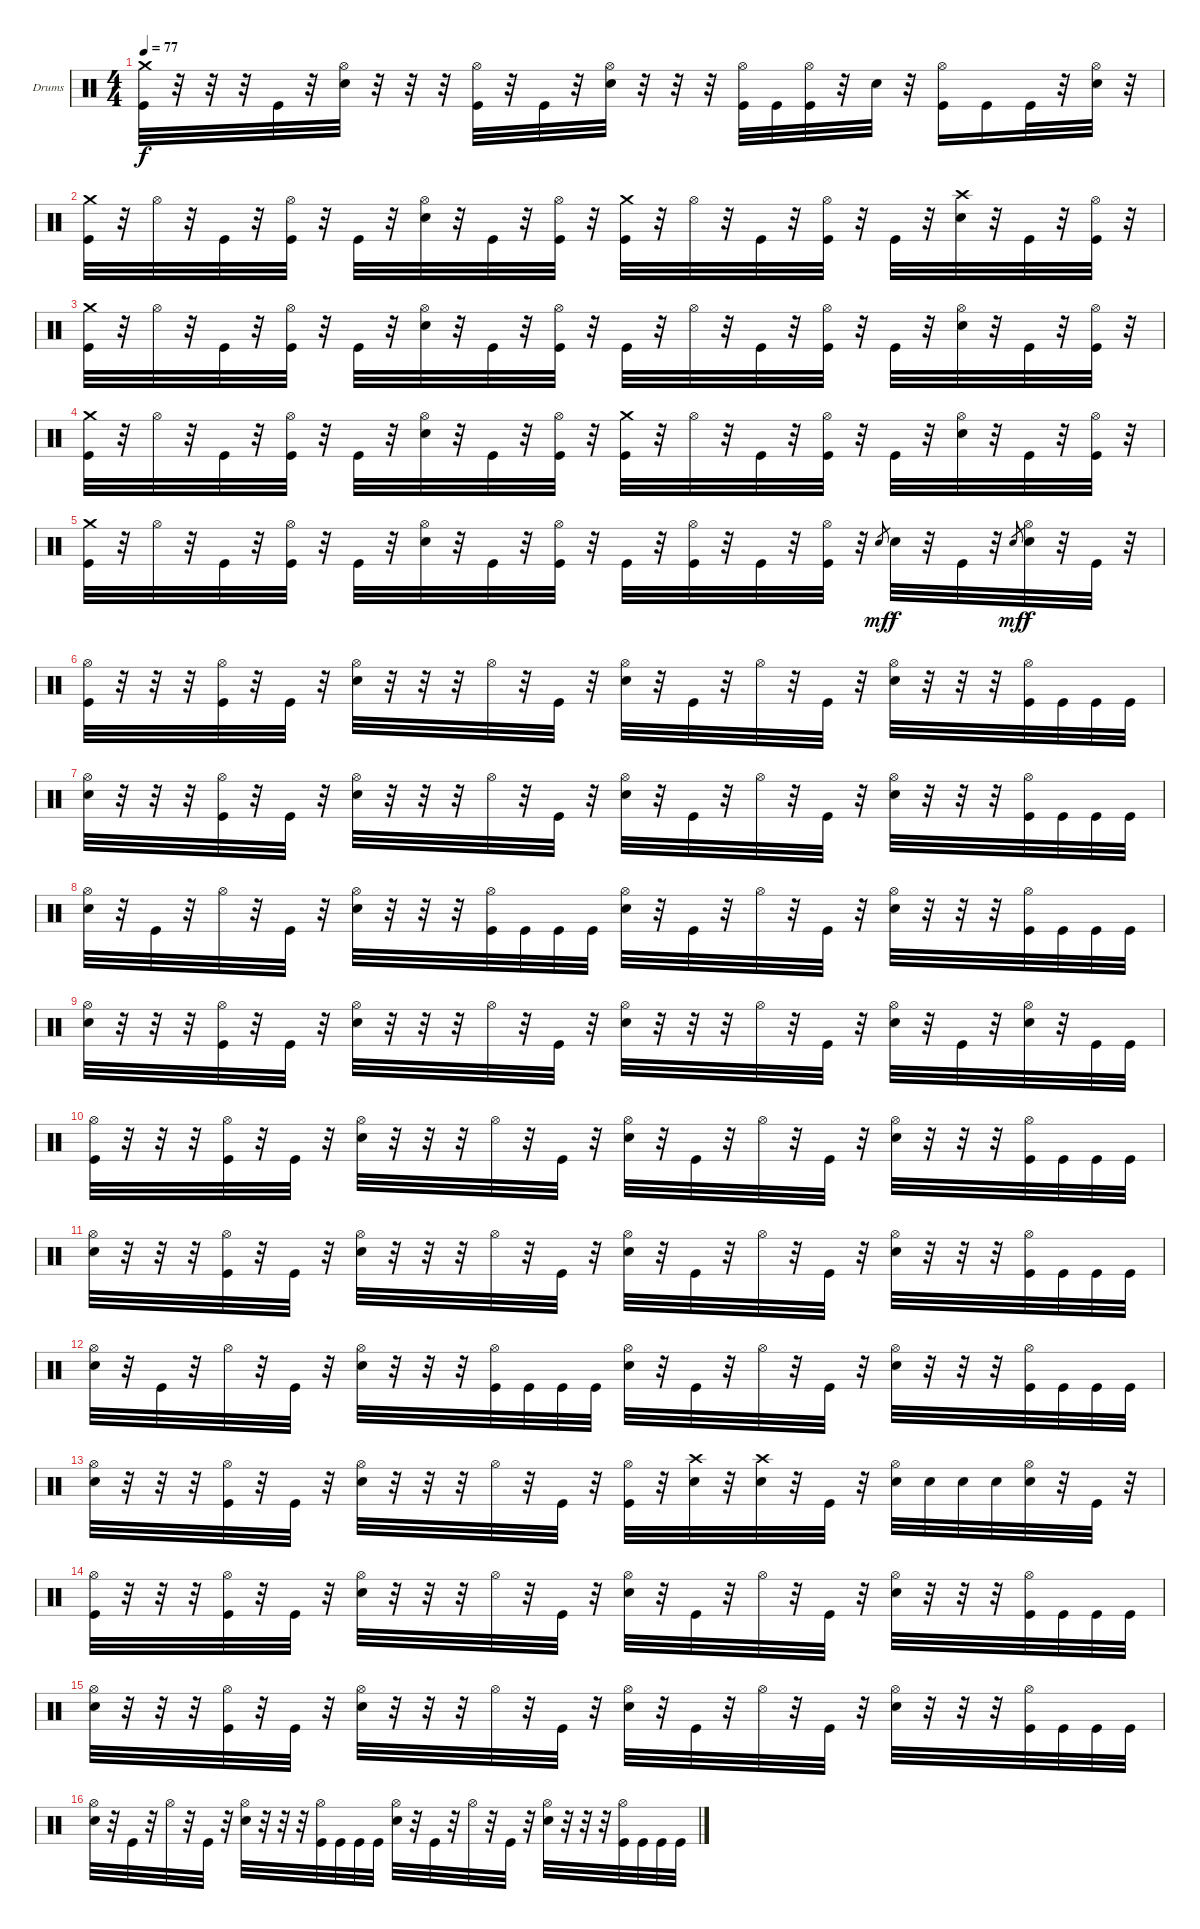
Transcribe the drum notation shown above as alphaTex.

\defaultSystemsLayout 4
\bracketExtendMode groupsimilarinstruments
\firstSystemTrackNameOrientation horizontal
\otherSystemsTrackNameOrientation horizontal
\track ("Drumkit" "Drums") {instrument percussion}
\staff {score}
\articulation defaults
\ts (4 4)
\tempo 77
\clef neutral
\ks c
("Crash medium (hit)" "Kick (hit)").32{dy f} r.32 r.32 r.32 "Kick (hit)".32 r.32 ("Hi-Hat (open)" "Snare (hit) 2").32 r.32 r.32 r.32 ("Hi-Hat (open)" "Kick (hit)").32 r.32 "Kick (hit)".32 r.32 ("Hi-Hat (open)" "Snare (hit) 2").32 r.32 r.32 r.32 ("Hi-Hat (open)" "Kick (hit)").32 "Kick (hit)".32 ("Hi-Hat (open)" "Kick (hit)").32 r.32 "Snare (hit) 2".32 r.32 ("Hi-Hat (open)" "Kick (hit)").16 "Kick (hit)".16 "Kick (hit)".32 r.32 ("Hi-Hat (open)" "Snare (hit) 2").32 r.32 |
("Crash medium (hit)" "Kick (hit)").32 r.32 "Hi-Hat (open)".32 r.32 "Kick (hit)".32 r.32 ("Hi-Hat (open)" "Kick (hit)").32 r.32 "Kick (hit)".32 r.32 ("Hi-Hat (open)" "Snare (hit) 2").32 r.32 "Kick (hit)".32 r.32 ("Hi-Hat (open)" "Kick (hit)").32 r.32 ("Crash medium (hit)" "Kick (hit)").32 r.32 "Hi-Hat (open)".32 r.32 "Kick (hit)".32 r.32 ("Hi-Hat (open)" "Kick (hit)").32 r.32 "Kick (hit)".32 r.32 ("Crash high (hit)" "Snare (hit) 2").32 r.32 "Kick (hit)".32 r.32 ("Hi-Hat (open)" "Kick (hit)").32 r.32 |
("Crash medium (hit)" "Kick (hit)").32 r.32 "Hi-Hat (open)".32 r.32 "Kick (hit)".32 r.32 ("Hi-Hat (open)" "Kick (hit)").32 r.32 "Kick (hit)".32 r.32 ("Hi-Hat (open)" "Snare (hit) 2").32 r.32 "Kick (hit)".32 r.32 ("Hi-Hat (open)" "Kick (hit)").32 r.32 "Kick (hit)".32 r.32 "Hi-Hat (open)".32 r.32 "Kick (hit)".32 r.32 ("Hi-Hat (open)" "Kick (hit)").32 r.32 "Kick (hit)".32 r.32 ("Hi-Hat (open)" "Snare (hit) 2").32 r.32 "Kick (hit)".32 r.32 ("Hi-Hat (open)" "Kick (hit)").32 r.32 |
("Crash medium (hit)" "Kick (hit)").32 r.32 "Hi-Hat (open)".32 r.32 "Kick (hit)".32 r.32 ("Hi-Hat (open)" "Kick (hit)").32 r.32 "Kick (hit)".32 r.32 ("Hi-Hat (open)" "Snare (hit) 2").32 r.32 "Kick (hit)".32 r.32 ("Hi-Hat (open)" "Kick (hit)").32 r.32 ("Crash medium (hit)" "Kick (hit)").32 r.32 "Hi-Hat (open)".32 r.32 "Kick (hit)".32 r.32 ("Hi-Hat (open)" "Kick (hit)").32 r.32 "Kick (hit)".32 r.32 ("Hi-Hat (open)" "Snare (hit) 2").32 r.32 "Kick (hit)".32 r.32 ("Hi-Hat (open)" "Kick (hit)").32 r.32 |
("Crash medium (hit)" "Kick (hit)").32 r.32 "Hi-Hat (open)".32 r.32 "Kick (hit)".32 r.32 ("Hi-Hat (open)" "Kick (hit)").32 r.32 "Kick (hit)".32 r.32 ("Hi-Hat (open)" "Snare (hit) 2").32 r.32 "Kick (hit)".32 r.32 ("Hi-Hat (open)" "Kick (hit)").32 r.32 "Kick (hit)".32 r.32 ("Hi-Hat (open)" "Kick (hit)").32 r.32 "Kick (hit)".32 r.32 ("Hi-Hat (open)" "Kick (hit)").32 r.32 "Snare (hit) 2".8{gr dy mf} "Snare (hit) 2".32{dy f} r.32 "Kick (hit)".32 r.32 "Snare (hit) 2".8{gr dy mf} ("Hi-Hat (open)" "Snare (hit) 2").32{dy f} r.32 "Kick (hit)".32 r.32 |
("Hi-Hat (open)" "Kick (hit)").32 r.32 r.32 r.32 ("Hi-Hat (open)" "Kick (hit)").32 r.32 "Kick (hit)".32 r.32 ("Hi-Hat (open)" "Snare (hit) 2").32 r.32 r.32 r.32 "Hi-Hat (open)".32 r.32 "Kick (hit)".32 r.32 ("Hi-Hat (open)" "Snare (hit) 2").32 r.32 "Kick (hit)".32 r.32 "Hi-Hat (open)".32 r.32 "Kick (hit)".32 r.32 ("Hi-Hat (open)" "Snare (hit) 2").32 r.32 r.32 r.32 ("Hi-Hat (open)" "Kick (hit)").32 "Kick (hit)".32 "Kick (hit)".32 "Kick (hit)".32 |
("Hi-Hat (open)" "Snare (hit) 2").32 r.32 r.32 r.32 ("Hi-Hat (open)" "Kick (hit)").32 r.32 "Kick (hit)".32 r.32 ("Hi-Hat (open)" "Snare (hit) 2").32 r.32 r.32 r.32 "Hi-Hat (open)".32 r.32 "Kick (hit)".32 r.32 ("Hi-Hat (open)" "Snare (hit) 2").32 r.32 "Kick (hit)".32 r.32 "Hi-Hat (open)".32 r.32 "Kick (hit)".32 r.32 ("Hi-Hat (open)" "Snare (hit) 2").32 r.32 r.32 r.32 ("Hi-Hat (open)" "Kick (hit)").32 "Kick (hit)".32 "Kick (hit)".32 "Kick (hit)".32 |
("Hi-Hat (open)" "Snare (hit) 2").32 r.32 "Kick (hit)".32 r.32 "Hi-Hat (open)".32 r.32 "Kick (hit)".32 r.32 ("Hi-Hat (open)" "Snare (hit) 2").32 r.32 r.32 r.32 ("Hi-Hat (open)" "Kick (hit)").32 "Kick (hit)".32 "Kick (hit)".32 "Kick (hit)".32 ("Hi-Hat (open)" "Snare (hit) 2").32 r.32 "Kick (hit)".32 r.32 "Hi-Hat (open)".32 r.32 "Kick (hit)".32 r.32 ("Hi-Hat (open)" "Snare (hit) 2").32 r.32 r.32 r.32 ("Hi-Hat (open)" "Kick (hit)").32 "Kick (hit)".32 "Kick (hit)".32 "Kick (hit)".32 |
("Hi-Hat (open)" "Snare (hit) 2").32 r.32 r.32 r.32 ("Hi-Hat (open)" "Kick (hit)").32 r.32 "Kick (hit)".32 r.32 ("Hi-Hat (open)" "Snare (hit) 2").32 r.32 r.32 r.32 "Hi-Hat (open)".32 r.32 "Kick (hit)".32 r.32 ("Hi-Hat (open)" "Snare (hit) 2").32 r.32 r.32 r.32 "Hi-Hat (open)".32 r.32 "Kick (hit)".32 r.32 ("Hi-Hat (open)" "Snare (hit) 2").32 r.32 "Kick (hit)".32 r.32 ("Hi-Hat (open)" "Snare (hit) 2").32 r.32 "Kick (hit)".32 "Kick (hit)".32 |
("Hi-Hat (open)" "Kick (hit)").32 r.32 r.32 r.32 ("Hi-Hat (open)" "Kick (hit)").32 r.32 "Kick (hit)".32 r.32 ("Hi-Hat (open)" "Snare (hit) 2").32 r.32 r.32 r.32 "Hi-Hat (open)".32 r.32 "Kick (hit)".32 r.32 ("Hi-Hat (open)" "Snare (hit) 2").32 r.32 "Kick (hit)".32 r.32 "Hi-Hat (open)".32 r.32 "Kick (hit)".32 r.32 ("Hi-Hat (open)" "Snare (hit) 2").32 r.32 r.32 r.32 ("Hi-Hat (open)" "Kick (hit)").32 "Kick (hit)".32 "Kick (hit)".32 "Kick (hit)".32 |
("Hi-Hat (open)" "Snare (hit) 2").32 r.32 r.32 r.32 ("Hi-Hat (open)" "Kick (hit)").32 r.32 "Kick (hit)".32 r.32 ("Hi-Hat (open)" "Snare (hit) 2").32 r.32 r.32 r.32 "Hi-Hat (open)".32 r.32 "Kick (hit)".32 r.32 ("Hi-Hat (open)" "Snare (hit) 2").32 r.32 "Kick (hit)".32 r.32 "Hi-Hat (open)".32 r.32 "Kick (hit)".32 r.32 ("Hi-Hat (open)" "Snare (hit) 2").32 r.32 r.32 r.32 ("Hi-Hat (open)" "Kick (hit)").32 "Kick (hit)".32 "Kick (hit)".32 "Kick (hit)".32 |
("Hi-Hat (open)" "Snare (hit) 2").32 r.32 "Kick (hit)".32 r.32 "Hi-Hat (open)".32 r.32 "Kick (hit)".32 r.32 ("Hi-Hat (open)" "Snare (hit) 2").32 r.32 r.32 r.32 ("Hi-Hat (open)" "Kick (hit)").32 "Kick (hit)".32 "Kick (hit)".32 "Kick (hit)".32 ("Hi-Hat (open)" "Snare (hit) 2").32 r.32 "Kick (hit)".32 r.32 "Hi-Hat (open)".32 r.32 "Kick (hit)".32 r.32 ("Hi-Hat (open)" "Snare (hit) 2").32 r.32 r.32 r.32 ("Hi-Hat (open)" "Kick (hit)").32 "Kick (hit)".32 "Kick (hit)".32 "Kick (hit)".32 |
("Hi-Hat (open)" "Snare (hit) 2").32 r.32 r.32 r.32 ("Hi-Hat (open)" "Kick (hit)").32 r.32 "Kick (hit)".32 r.32 ("Hi-Hat (open)" "Snare (hit) 2").32 r.32 r.32 r.32 "Hi-Hat (open)".32 r.32 "Kick (hit)".32 r.32 ("Hi-Hat (open)" "Kick (hit)").32 r.32 ("Crash high (hit)" "Snare (hit) 2").32 r.32 ("Crash high (hit)" "Snare (hit) 2").32 r.32 "Kick (hit)".32 r.32 ("Hi-Hat (open)" "Snare (hit) 2").32 "Snare (hit) 2".32 "Snare (hit) 2".32 "Snare (hit) 2".32 ("Hi-Hat (open)" "Snare (hit) 2").32 r.32 "Kick (hit)".32 r.32 |
("Hi-Hat (open)" "Kick (hit)").32 r.32 r.32 r.32 ("Hi-Hat (open)" "Kick (hit)").32 r.32 "Kick (hit)".32 r.32 ("Hi-Hat (open)" "Snare (hit) 2").32 r.32 r.32 r.32 "Hi-Hat (open)".32 r.32 "Kick (hit)".32 r.32 ("Hi-Hat (open)" "Snare (hit) 2").32 r.32 "Kick (hit)".32 r.32 "Hi-Hat (open)".32 r.32 "Kick (hit)".32 r.32 ("Hi-Hat (open)" "Snare (hit) 2").32 r.32 r.32 r.32 ("Hi-Hat (open)" "Kick (hit)").32 "Kick (hit)".32 "Kick (hit)".32 "Kick (hit)".32 |
("Hi-Hat (open)" "Snare (hit) 2").32 r.32 r.32 r.32 ("Hi-Hat (open)" "Kick (hit)").32 r.32 "Kick (hit)".32 r.32 ("Hi-Hat (open)" "Snare (hit) 2").32 r.32 r.32 r.32 "Hi-Hat (open)".32 r.32 "Kick (hit)".32 r.32 ("Hi-Hat (open)" "Snare (hit) 2").32 r.32 "Kick (hit)".32 r.32 "Hi-Hat (open)".32 r.32 "Kick (hit)".32 r.32 ("Hi-Hat (open)" "Snare (hit) 2").32 r.32 r.32 r.32 ("Hi-Hat (open)" "Kick (hit)").32 "Kick (hit)".32 "Kick (hit)".32 "Kick (hit)".32 |
("Hi-Hat (open)" "Snare (hit) 2").32 r.32 "Kick (hit)".32 r.32 "Hi-Hat (open)".32 r.32 "Kick (hit)".32 r.32 ("Hi-Hat (open)" "Snare (hit) 2").32 r.32 r.32 r.32 ("Hi-Hat (open)" "Kick (hit)").32 "Kick (hit)".32 "Kick (hit)".32 "Kick (hit)".32 ("Hi-Hat (open)" "Snare (hit) 2").32 r.32 "Kick (hit)".32 r.32 "Hi-Hat (open)".32 r.32 "Kick (hit)".32 r.32 ("Hi-Hat (open)" "Snare (hit) 2").32 r.32 r.32 r.32 ("Hi-Hat (open)" "Kick (hit)").32 "Kick (hit)".32 "Kick (hit)".32 "Kick (hit)".32
